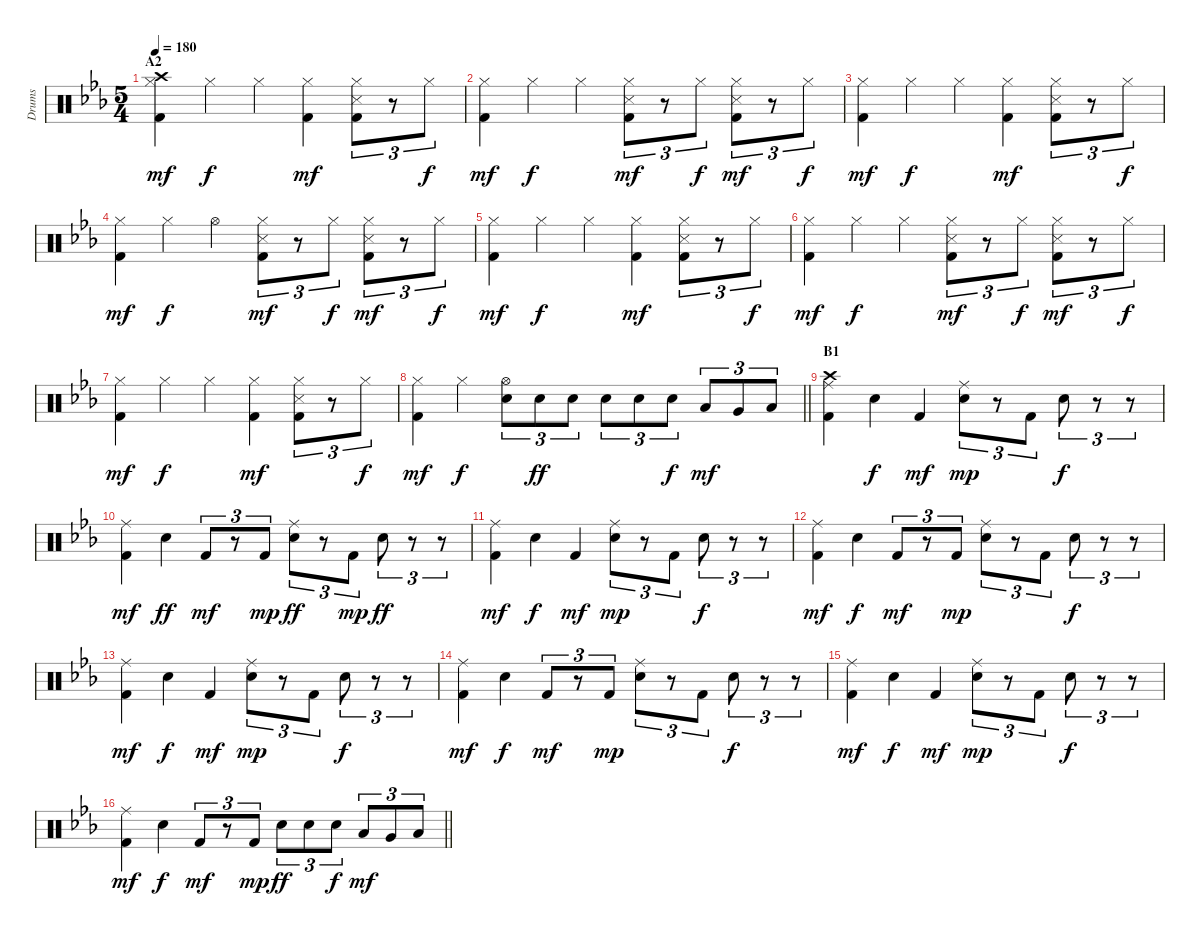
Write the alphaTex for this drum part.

\track ("Drums" "Drums") {instrument percussion}
\staff {score}
\articulation defaults
\ts (5 4)
\section ("" "A2")
\tempo 180
\clef neutral
\ks eb
("Hi-Hat (closed)" "Crash high (hit)" "Kick (hit) 2").4{dy mf} "Hi-Hat (closed)".4{dy f} "Hi-Hat (closed)".4 ("Hi-Hat (closed)" "Kick (hit) 2").4{dy mf} ("Hi-Hat (closed)" "Snare (side stick) 3" "Kick (hit) 2").8{tu (3 2)} r.8{tu (3 2)} "Hi-Hat (closed)".8{tu (3 2) dy f} |
("Hi-Hat (closed)" "Kick (hit) 2").4{dy mf} "Hi-Hat (closed)".4{dy f} "Hi-Hat (closed)".4 ("Hi-Hat (closed)" "Snare (side stick) 3" "Kick (hit) 2").8{tu (3 2) dy mf} r.8{tu (3 2)} "Hi-Hat (closed)".8{tu (3 2) dy f} ("Hi-Hat (closed)" "Snare (side stick) 3" "Kick (hit) 2").8{tu (3 2) dy mf} r.8{tu (3 2)} "Hi-Hat (closed)".8{tu (3 2) dy f} |
("Hi-Hat (closed)" "Kick (hit) 2").4{dy mf} "Hi-Hat (closed)".4{dy f} "Hi-Hat (closed)".4 ("Hi-Hat (closed)" "Kick (hit) 2").4{dy mf} ("Hi-Hat (closed)" "Snare (side stick) 3" "Kick (hit) 2").8{tu (3 2)} r.8{tu (3 2)} "Hi-Hat (closed)".8{tu (3 2) dy f} |
("Hi-Hat (closed)" "Kick (hit) 2").4{dy mf} "Hi-Hat (closed)".4{dy f} "Hi-Hat (open)".4 ("Hi-Hat (closed)" "Snare (side stick) 3" "Kick (hit) 2").8{tu (3 2) dy mf} r.8{tu (3 2)} "Hi-Hat (closed)".8{tu (3 2) dy f} ("Hi-Hat (closed)" "Snare (side stick) 3" "Kick (hit) 2").8{tu (3 2) dy mf} r.8{tu (3 2)} "Hi-Hat (closed)".8{tu (3 2) dy f} |
("Hi-Hat (closed)" "Kick (hit) 2").4{dy mf} "Hi-Hat (closed)".4{dy f} "Hi-Hat (closed)".4 ("Hi-Hat (closed)" "Kick (hit) 2").4{dy mf} ("Hi-Hat (closed)" "Snare (side stick) 3" "Kick (hit) 2").8{tu (3 2)} r.8{tu (3 2)} "Hi-Hat (closed)".8{tu (3 2) dy f} |
("Hi-Hat (closed)" "Kick (hit) 2").4{dy mf} "Hi-Hat (closed)".4{dy f} "Hi-Hat (closed)".4 ("Hi-Hat (closed)" "Snare (side stick) 3" "Kick (hit) 2").8{tu (3 2) dy mf} r.8{tu (3 2)} "Hi-Hat (closed)".8{tu (3 2) dy f} ("Hi-Hat (closed)" "Snare (side stick) 3" "Kick (hit) 2").8{tu (3 2) dy mf} r.8{tu (3 2)} "Hi-Hat (closed)".8{tu (3 2) dy f} |
("Hi-Hat (closed)" "Kick (hit) 2").4{dy mf} "Hi-Hat (closed)".4{dy f} "Hi-Hat (closed)".4 ("Hi-Hat (closed)" "Kick (hit) 2").4{dy mf} ("Hi-Hat (closed)" "Snare (side stick) 3" "Kick (hit) 2").8{tu (3 2)} r.8{tu (3 2)} "Hi-Hat (closed)".8{tu (3 2) dy f} |
\barLineRight lightlight
("Hi-Hat (closed)" "Kick (hit) 2").4{dy mf} "Hi-Hat (closed)".4{dy f} ("Hi-Hat (open)" "Snare (hit) 2").8{tu (3 2)} "Snare (hit) 2".8{tu (3 2) dy ff} "Hand Clap (hit)".8{tu (3 2)} "Hand Clap (hit)".8{tu (3 2)} "Hand Clap (hit)".8{tu (3 2)} "Hand Clap (hit)".8{tu (3 2) dy f} "Low Tom (hit)".8{tu (3 2) dy mf} "Very Low Tom (hit)".8{tu (3 2)} "Low Floor Tom (hit)".8{tu (3 2)} |
\section ("" "B1")
("Ride (middle)" "Crash high (hit)" "Kick (hit) 2").4 "Hand Clap (hit)".4{dy f} "Kick (hit) 2".4{dy mf} ("Ride (middle)" "Hand Clap (hit)").8{tu (3 2) dy mp} r.8{tu (3 2)} "Kick (hit) 2".8{tu (3 2)} "Hand Clap (hit)".8{tu (3 2) dy f} r.8{tu (3 2)} r.8{tu (3 2)} |
("Ride (middle)" "Kick (hit) 2").4{dy mf} "Hand Clap (hit)".4{dy ff} "Kick (hit) 2".8{tu (3 2) dy mf} r.8{tu (3 2)} "Kick (hit) 2".8{tu (3 2) dy mp} ("Ride (middle)" "Hand Clap (hit)").8{tu (3 2) dy ff} r.8{tu (3 2)} "Kick (hit) 2".8{tu (3 2) dy mp} "Hand Clap (hit)".8{tu (3 2) dy ff} r.8{tu (3 2)} r.8{tu (3 2)} |
("Ride (middle)" "Kick (hit) 2").4{dy mf} "Hand Clap (hit)".4{dy f} "Kick (hit) 2".4{dy mf} ("Ride (middle)" "Hand Clap (hit)").8{tu (3 2) dy mp} r.8{tu (3 2)} "Kick (hit) 2".8{tu (3 2)} "Hand Clap (hit)".8{tu (3 2) dy f} r.8{tu (3 2)} r.8{tu (3 2)} |
("Ride (middle)" "Kick (hit) 2").4{dy mf} "Hand Clap (hit)".4{dy f} "Kick (hit) 2".8{tu (3 2) dy mf} r.8{tu (3 2)} "Kick (hit) 2".8{tu (3 2) dy mp} ("Ride (middle)" "Hand Clap (hit)").8{tu (3 2)} r.8{tu (3 2)} "Kick (hit) 2".8{tu (3 2)} "Hand Clap (hit)".8{tu (3 2) dy f} r.8{tu (3 2)} r.8{tu (3 2)} |
("Ride (middle)" "Kick (hit) 2").4{dy mf} "Hand Clap (hit)".4{dy f} "Kick (hit) 2".4{dy mf} ("Ride (middle)" "Hand Clap (hit)").8{tu (3 2) dy mp} r.8{tu (3 2)} "Kick (hit) 2".8{tu (3 2)} "Hand Clap (hit)".8{tu (3 2) dy f} r.8{tu (3 2)} r.8{tu (3 2)} |
("Ride (middle)" "Kick (hit) 2").4{dy mf} "Hand Clap (hit)".4{dy f} "Kick (hit) 2".8{tu (3 2) dy mf} r.8{tu (3 2)} "Kick (hit) 2".8{tu (3 2) dy mp} ("Ride (middle)" "Hand Clap (hit)").8{tu (3 2)} r.8{tu (3 2)} "Kick (hit) 2".8{tu (3 2)} "Hand Clap (hit)".8{tu (3 2) dy f} r.8{tu (3 2)} r.8{tu (3 2)} |
("Ride (middle)" "Kick (hit) 2").4{dy mf} "Hand Clap (hit)".4{dy f} "Kick (hit) 2".4{dy mf} ("Ride (middle)" "Hand Clap (hit)").8{tu (3 2) dy mp} r.8{tu (3 2)} "Kick (hit) 2".8{tu (3 2)} "Hand Clap (hit)".8{tu (3 2) dy f} r.8{tu (3 2)} r.8{tu (3 2)} |
\barLineRight lightlight
("Ride (middle)" "Kick (hit) 2").4{dy mf} "Hand Clap (hit)".4{dy f} "Kick (hit) 2".8{tu (3 2) dy mf} r.8{tu (3 2)} "Kick (hit) 2".8{tu (3 2) dy mp} "Snare (hit) 2".8{tu (3 2) dy ff} "Hand Clap (hit)".8{tu (3 2)} "Hand Clap (hit)".8{tu (3 2) dy f} "Low Tom (hit)".8{tu (3 2) dy mf} "Very Low Tom (hit)".8{tu (3 2)} "Low Floor Tom (hit)".8{tu (3 2)}
